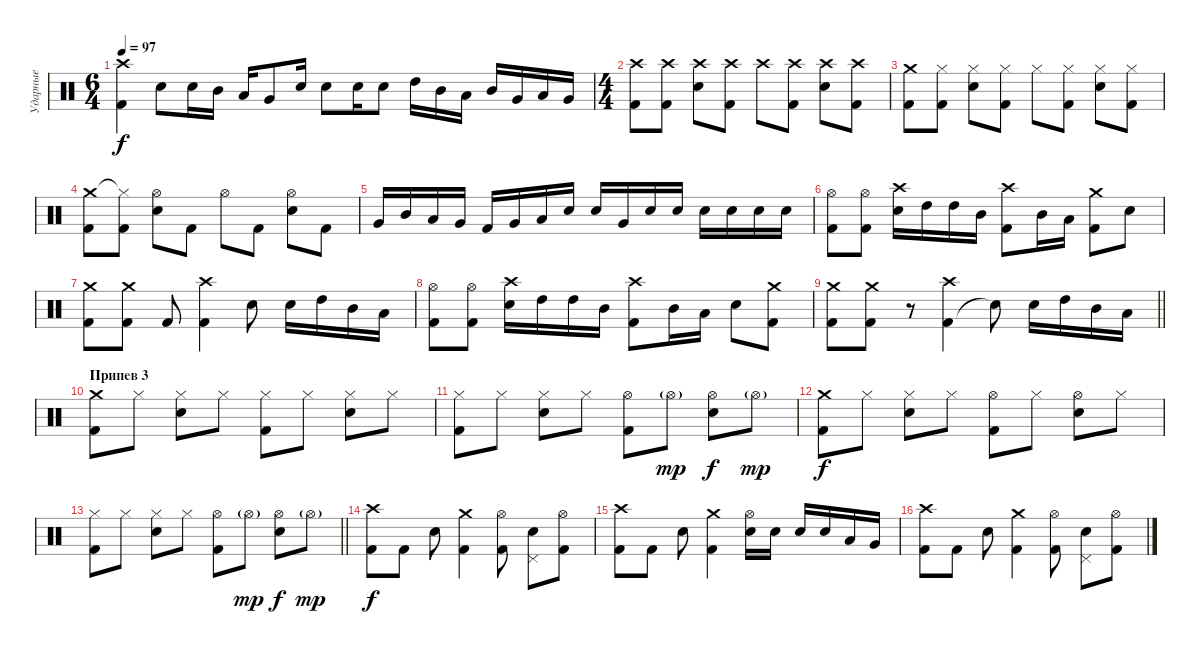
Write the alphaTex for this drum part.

\track ("Ударные" "Ударные") {instrument percussion}
\staff {score}
\articulation defaults
\ts (6 4)
\tempo 97
\clef neutral
\ks c
("Kick (hit) 2" "Crash high (hit)").4{dy f} "Snare (hit) 2".8 "Snare (hit) 2".16 "Mid Tom (hit)".16 "Low Tom (hit)".16 "Very Low Tom (hit)".8 "Snare (hit) 2".16 "Snare (hit) 2".8 "Snare (hit) 2".16 "Snare (hit) 2".8 "High Tom (hit)".16 "Mid Tom (hit)".16 "Low Tom (hit)".16 "Mid Tom (hit)".16 "Very Low Tom (hit)".16 "Low Tom (hit)".16 "Very Low Tom (hit)".16 |
\ts (4 4)
("Kick (hit) 2" "Crash high (hit)").8 ("Kick (hit) 2" "Crash high (hit)").8 ("Snare (hit) 2" "Crash high (hit)").8 ("Kick (hit) 2" "Crash high (hit)").8 "Crash high (hit)".8 ("Kick (hit) 2" "Crash high (hit)").8 ("Snare (hit) 2" "Crash high (hit)").8 ("Kick (hit) 2" "Crash high (hit)").8 |
("Kick (hit) 2" "Crash medium (hit)").8 ("Kick (hit) 2" "Hi-Hat (closed)").8 ("Snare (hit) 2" "Hi-Hat (closed)").8 ("Kick (hit) 2" "Hi-Hat (closed)").8 "Hi-Hat (closed)".8 ("Kick (hit) 2" "Hi-Hat (closed)").8 ("Snare (hit) 2" "Hi-Hat (closed)").8 ("Kick (hit) 2" "Hi-Hat (closed)").8 |
("Kick (hit) 2" "Crash medium (hit)").8 ("Kick (hit) 2" "Hi-Hat (closed)"{t}).8 ("Snare (hit) 2" "Hi-Hat (open)").8 "Kick (hit) 2".8 "Hi-Hat (open)".8 "Kick (hit) 2".8 ("Snare (hit) 2" "Hi-Hat (open)").8 "Kick (hit) 2".8 |
"Very Low Tom (hit)".16 "Mid Tom (hit)".16 "Low Tom (hit)".16 "Very Low Tom (hit)".16 "Kick (hit) 2".16 "Very Low Tom (hit)".16 "Low Tom (hit)".16 "Snare (hit) 2".16 "Snare (hit) 2".16 "Very Low Tom (hit)".16 "Snare (hit) 2".16 "Snare (hit) 2".16 "Snare (hit) 2".16 "Snare (hit) 2".16 "Snare (hit) 2".16 "Snare (hit) 2".16 |
("Kick (hit) 2" "Hi-Hat (open)").8 ("Kick (hit) 2" "Hi-Hat (open)").8 ("Snare (hit) 2" "Crash high (hit)").16 "High Tom (hit)".16 "High Tom (hit)".16 "Mid Tom (hit)".16 ("Kick (hit) 2" "Crash high (hit)").8 "Mid Tom (hit)".16 "Low Tom (hit)".16 ("Kick (hit) 2" "Crash medium (hit)").8 "Snare (hit) 2".8 |
("Kick (hit) 2" "Crash medium (hit)").8 ("Kick (hit) 2" "Crash medium (hit)").8 "Kick (hit) 2".8 ("Kick (hit) 2" "Crash high (hit)").4 "Snare (hit) 2".8 "Snare (hit) 2".16 "High Tom (hit)".16 "Mid Tom (hit)".16 "Low Tom (hit)".16 |
("Kick (hit) 2" "Hi-Hat (open)").8 ("Kick (hit) 2" "Hi-Hat (open)").8 ("Snare (hit) 2" "Crash high (hit)").16 "High Tom (hit)".16 "High Tom (hit)".16 "Mid Tom (hit)".16 ("Kick (hit) 2" "Crash high (hit)").8 "Mid Tom (hit)".16 "Low Tom (hit)".16 "Snare (hit) 2".8 ("Crash medium (hit)" "Kick (hit) 2").8 |
\barLineRight lightlight
("Kick (hit) 2" "Crash medium (hit)").8 ("Kick (hit) 2" "Crash medium (hit)").8 r.8 ("Kick (hit) 2" "Crash high (hit)").4 "Snare (hit) 2"{t}.8 "Snare (hit) 2".16 "High Tom (hit)".16 "Mid Tom (hit)".16 "Low Tom (hit)".16 |
\section ("" "Припев 3")
("Crash medium (hit)" "Kick (hit) 2").8 "Hi-Hat (closed)".8 ("Snare (hit) 2" "Hi-Hat (closed)").8 "Hi-Hat (closed)".8 ("Kick (hit) 2" "Hi-Hat (closed)").8 "Hi-Hat (closed)".8 ("Snare (hit) 2" "Hi-Hat (closed)").8 "Hi-Hat (closed)".8 |
("Kick (hit) 2" "Hi-Hat (closed)").8 "Hi-Hat (closed)".8 ("Snare (hit) 2" "Hi-Hat (closed)").8 "Hi-Hat (closed)".8 ("Kick (hit) 2" "Hi-Hat (open)").8 "Hi-Hat (open)"{g}.8{dy mp} ("Snare (hit) 2" "Hi-Hat (open)").8{dy f} "Hi-Hat (open)"{g}.8{dy mp} |
("Crash medium (hit)" "Kick (hit) 2").8{dy f} "Hi-Hat (closed)".8 ("Snare (hit) 2" "Hi-Hat (closed)").8 "Hi-Hat (closed)".8 ("Kick (hit) 2" "Hi-Hat (open)").8 "Hi-Hat (closed)".8 ("Snare (hit) 2" "Hi-Hat (open)").8 "Hi-Hat (closed)".8 |
\barLineRight lightlight
("Kick (hit) 2" "Hi-Hat (closed)").8 "Hi-Hat (closed)".8 ("Snare (hit) 2" "Hi-Hat (closed)").8 "Hi-Hat (closed)".8 ("Kick (hit) 2" "Hi-Hat (open)").8 "Hi-Hat (open)"{g}.8{dy mp} ("Snare (hit) 2" "Hi-Hat (open)").8{dy f} "Hi-Hat (open)"{g}.8{dy mp} |
("Crash high (hit)" "Kick (hit) 2").8{dy f} "Kick (hit) 2".8 "Snare (hit) 2".8 ("Crash medium (hit)" "Kick (hit) 2").4 ("Hi-Hat (open)" "Kick (hit) 2").8 ("Pedal Hi-Hat (hit)" "Snare (hit) 2").8 ("Hi-Hat (open)" "Kick (hit) 2").8 |
("Crash high (hit)" "Kick (hit) 2").8 "Kick (hit) 2".8 "Snare (hit) 2".8 ("Crash medium (hit)" "Kick (hit) 2").4 ("Hi-Hat (open)" "Snare (hit) 2").16 "Snare (hit) 2".16 "Snare (hit) 2".16 "Snare (hit) 2".16 "Low Tom (hit)".16 "Very Low Tom (hit)".16 |
("Crash high (hit)" "Kick (hit) 2").8 "Kick (hit) 2".8 "Snare (hit) 2".8 ("Crash medium (hit)" "Kick (hit) 2").4 ("Hi-Hat (open)" "Kick (hit) 2").8 ("Pedal Hi-Hat (hit)" "Snare (hit) 2").8 ("Hi-Hat (open)" "Kick (hit) 2").8
